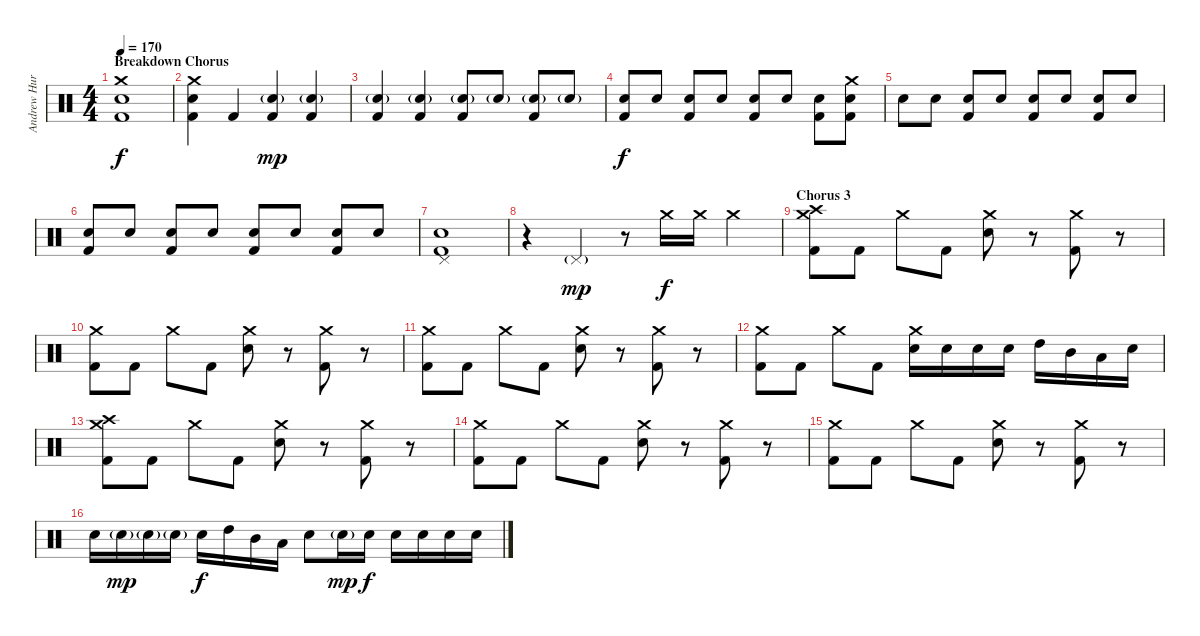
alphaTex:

\track ("Andrew Hurley (Drums)" "Andrew Hur") {instrument percussion}
\staff {score}
\articulation defaults
\ts (4 4)
\section ("" "Breakdown Chorus")
\tempo 170
\clef neutral
\ks c
("Crash medium (hit)" "Electric Snare (hit)" "Kick (hit) 2").1{dy f} |
("Crash medium (hit)" "Electric Snare (hit)" "Kick (hit) 2").4 "Kick (hit) 2".4 ("Electric Snare (hit)"{g} "Kick (hit) 2").4{dy mp} ("Electric Snare (hit)"{g} "Kick (hit) 2").4 |
("Electric Snare (hit)"{g} "Kick (hit) 2").4 ("Electric Snare (hit)"{g} "Kick (hit) 2").4 ("Electric Snare (hit)"{g} "Kick (hit) 2").8 "Electric Snare (hit)"{g}.8 ("Electric Snare (hit)"{g} "Kick (hit) 2").8 "Electric Snare (hit)"{g}.8 |
("Electric Snare (hit)" "Kick (hit) 2").8{dy f} "Electric Snare (hit)".8 ("Electric Snare (hit)" "Kick (hit) 2").8 "Electric Snare (hit)".8 ("Electric Snare (hit)" "Kick (hit) 2").8 "Electric Snare (hit)".8 ("Electric Snare (hit)" "Kick (hit) 2").8 ("Crash medium (hit)" "Electric Snare (hit)" "Kick (hit) 2").8 |
"Electric Snare (hit)".8 "Electric Snare (hit)".8 ("Electric Snare (hit)" "Kick (hit) 2").8 "Electric Snare (hit)".8 ("Electric Snare (hit)" "Kick (hit) 2").8 "Electric Snare (hit)".8 ("Electric Snare (hit)" "Kick (hit) 2").8 "Electric Snare (hit)".8 |
("Electric Snare (hit)" "Kick (hit) 2").8 "Electric Snare (hit)".8 ("Electric Snare (hit)" "Kick (hit) 2").8 "Electric Snare (hit)".8 ("Electric Snare (hit)" "Kick (hit) 2").8 "Electric Snare (hit)".8 ("Electric Snare (hit)" "Kick (hit) 2").8 "Electric Snare (hit)".8 |
("Pedal Hi-Hat (hit)" "Electric Snare (hit)" "Kick (hit) 2").1 |
r.4 "Pedal Hi-Hat (hit)"{g}.4{dy mp} r.8 "Crash medium (hit)".16{dy f} "Crash medium (hit)".16 "Crash medium (hit)".4 |
\section ("" "Chorus 3")
("Crash high (hit)" "Crash medium (hit)" "Kick (hit) 2").8 "Kick (hit) 2".8 "Crash medium (hit)".8 "Kick (hit) 2".8 ("Crash medium (hit)" "Electric Snare (hit)").8 r.8 ("Crash medium (hit)" "Kick (hit) 2").8 r.8 |
("Crash medium (hit)" "Kick (hit) 2").8 "Kick (hit) 2".8 "Crash medium (hit)".8 "Kick (hit) 2".8 ("Crash medium (hit)" "Electric Snare (hit)").8 r.8 ("Crash medium (hit)" "Kick (hit) 2").8 r.8 |
("Crash medium (hit)" "Kick (hit) 2").8 "Kick (hit) 2".8 "Crash medium (hit)".8 "Kick (hit) 2".8 ("Crash medium (hit)" "Electric Snare (hit)").8 r.8 ("Crash medium (hit)" "Kick (hit) 2").8 r.8 |
("Crash medium (hit)" "Kick (hit) 2").8 "Kick (hit) 2".8 "Crash medium (hit)".8 "Kick (hit) 2".8 ("Crash medium (hit)" "Electric Snare (hit)").16 "Electric Snare (hit)".16 "Electric Snare (hit)".16 "Electric Snare (hit)".16 "High Tom (hit)".16 "Mid Tom (hit)".16 "Low Tom (hit)".16 "Electric Snare (hit)".16 |
("Crash high (hit)" "Crash medium (hit)" "Kick (hit) 2").8 "Kick (hit) 2".8 "Crash medium (hit)".8 "Kick (hit) 2".8 ("Crash medium (hit)" "Electric Snare (hit)").8 r.8 ("Crash medium (hit)" "Kick (hit) 2").8 r.8 |
("Crash medium (hit)" "Kick (hit) 2").8 "Kick (hit) 2".8 "Crash medium (hit)".8 "Kick (hit) 2".8 ("Crash medium (hit)" "Electric Snare (hit)").8 r.8 ("Crash medium (hit)" "Kick (hit) 2").8 r.8 |
("Crash medium (hit)" "Kick (hit) 2").8 "Kick (hit) 2".8 "Crash medium (hit)".8 "Kick (hit) 2".8 ("Crash medium (hit)" "Electric Snare (hit)").8 r.8 ("Crash medium (hit)" "Kick (hit) 2").8 r.8 |
"Electric Snare (hit)".16 "Electric Snare (hit)"{g}.16{dy mp} "Electric Snare (hit)"{g}.16 "Electric Snare (hit)"{g}.16 "Electric Snare (hit)".16{dy f} "High Tom (hit)".16 "Mid Tom (hit)".16 "Low Tom (hit)".16 "Electric Snare (hit)".8 "Electric Snare (hit)"{g}.16{dy mp} "Electric Snare (hit)".16{dy f} "Electric Snare (hit)".16 "Electric Snare (hit)".16 "Electric Snare (hit)".16 "Electric Snare (hit)".16
